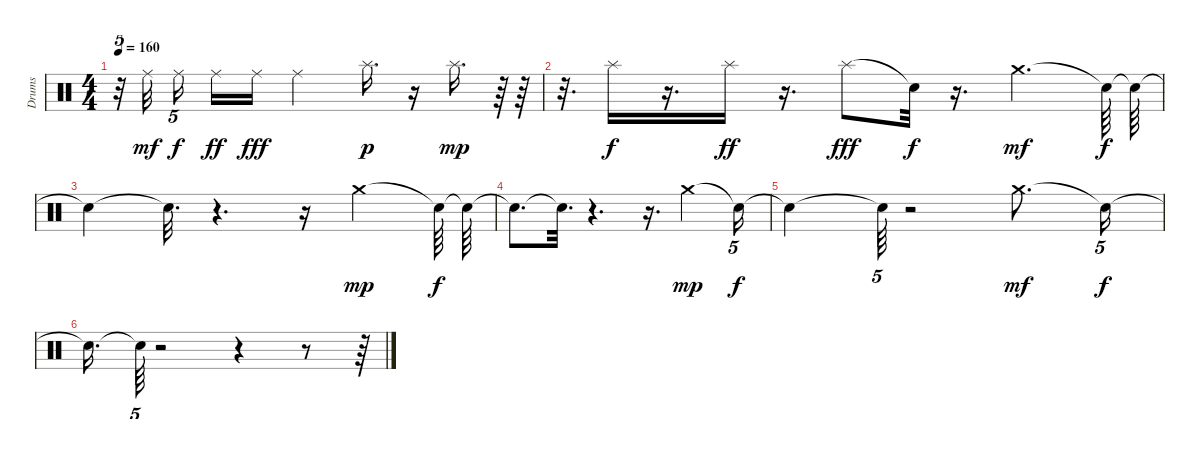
\track ("Drums" "Drums") {instrument percussion}
\staff {score}
\articulation defaults
\ts (4 4)
\tempo 160
\clef neutral
\ks c
r.32{tu (5 4) dy fff} "Ride (middle)".32{dy mf volume 6} "Ride (middle)".16{tu (5 4) dy f volume 5} "Ride (middle)".16{dy ff} "Ride (middle)".16{dy fff volume 5} "Ride (middle)".2 "Splash (hit)".16{d dy p volume 5} r.16 "Splash (hit)".16{d dy mp volume 4} r.64 r.64 |
r.32{d} "Splash (hit)".16{dy f volume 4} r.16{d} "Splash (hit)".16{dy ff volume 4} r.16{d} "Splash (hit)".8{dy fff volume 4} "Snare (hit)"{t}.32{dy f} r.16{d} "Crash medium (hit)".4{d dy mf volume 4} "Snare (hit)"{t}.64{dy f} "Snare (hit)"{t}.64 |
"Snare (hit)"{t}.4 "Snare (hit)"{t}.32{d} r.4{d} r.16 "Crash medium (hit)".4{dy mp volume 3} "Snare (hit)"{t}.64{dy f} "Snare (hit)"{t}.64 |
"Snare (hit)"{t}.8{d} "Snare (hit)"{t}.32{d} r.4{d} r.16{d} "Crash medium (hit)".4{dy mp volume 2} "Snare (hit)"{t}.16{tu (5 4) dy f} |
"Snare (hit)"{t}.4 "Snare (hit)"{t}.64{tu (5 4)} r.2 "Crash medium (hit)".8{d dy mf volume 1} "Snare (hit)"{t}.16{tu (5 4) dy f} |
"Snare (hit)"{t}.16{d} "Snare (hit)"{t}.64{tu (5 4)} r.2 r.4 r.8 r.64
